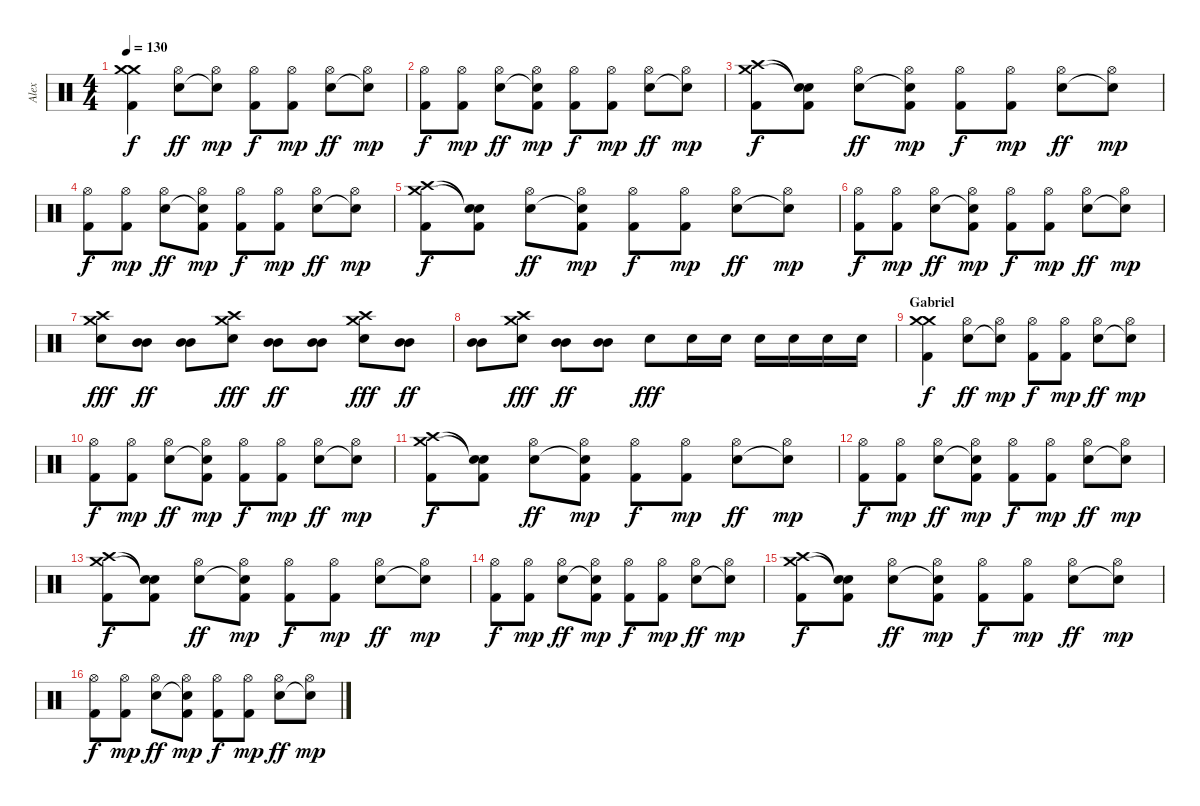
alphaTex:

\track ("Alex" "Alex") {instrument percussion}
\staff {score}
\articulation defaults
\ts (4 4)
\tempo 130
\clef neutral
\ks c
("Crash medium (hit)" "Crash medium (hit)" "Kick (hit) 2").4{dy f} ("Hi-Hat (open)" "Electric Snare (hit)").8{dy ff} ("Hi-Hat (open)" "Snare (hit)"{t}).8{dy mp} ("Hi-Hat (open)" "Kick (hit) 2").8{dy f} ("Hi-Hat (open)" "Kick (hit) 2").8{dy mp} ("Hi-Hat (open)" "Electric Snare (hit)").8{dy ff} ("Hi-Hat (open)" "Snare (hit)"{t}).8{dy mp} |
("Hi-Hat (open)" "Kick (hit) 2").8{dy f} ("Hi-Hat (open)" "Kick (hit) 2").8{dy mp} ("Hi-Hat (open)" "Electric Snare (hit)").8{dy ff} ("Hi-Hat (open)" "Snare (hit)"{t} "Kick (hit) 2").8{dy mp} ("Hi-Hat (open)" "Kick (hit) 2").8{dy f} ("Hi-Hat (open)" "Kick (hit) 2").8{dy mp} ("Hi-Hat (open)" "Electric Snare (hit)").8{dy ff} ("Hi-Hat (open)" "Snare (hit)"{t}).8{dy mp} |
("Crash medium (hit)" "Crash high (hit)" "Kick (hit) 2").8{dy f} ("Snare (hit)"{t} "Snare (hit)"{t} "Kick (hit) 2").8 ("Hi-Hat (open)" "Electric Snare (hit)").8{dy ff} ("Hi-Hat (open)" "Snare (hit)"{t} "Kick (hit) 2").8{dy mp} ("Hi-Hat (open)" "Kick (hit) 2").8{dy f} ("Hi-Hat (open)" "Kick (hit) 2").8{dy mp} ("Hi-Hat (open)" "Electric Snare (hit)").8{dy ff} ("Hi-Hat (open)" "Snare (hit)"{t}).8{dy mp} |
("Hi-Hat (open)" "Kick (hit) 2").8{dy f} ("Hi-Hat (open)" "Kick (hit) 2").8{dy mp} ("Hi-Hat (open)" "Electric Snare (hit)").8{dy ff} ("Hi-Hat (open)" "Snare (hit)"{t} "Kick (hit) 2").8{dy mp} ("Hi-Hat (open)" "Kick (hit) 2").8{dy f} ("Hi-Hat (open)" "Kick (hit) 2").8{dy mp} ("Hi-Hat (open)" "Electric Snare (hit)").8{dy ff} ("Hi-Hat (open)" "Snare (hit)"{t}).8{dy mp} |
("Crash medium (hit)" "Crash high (hit)" "Kick (hit) 2").8{dy f} ("Snare (hit)"{t} "Snare (hit)"{t} "Kick (hit) 2").8 ("Hi-Hat (open)" "Electric Snare (hit)").8{dy ff} ("Hi-Hat (open)" "Snare (hit)"{t} "Kick (hit) 2").8{dy mp} ("Hi-Hat (open)" "Kick (hit) 2").8{dy f} ("Hi-Hat (open)" "Kick (hit) 2").8{dy mp} ("Hi-Hat (open)" "Electric Snare (hit)").8{dy ff} ("Hi-Hat (open)" "Snare (hit)"{t}).8{dy mp} |
("Hi-Hat (open)" "Kick (hit) 2").8{dy f} ("Hi-Hat (open)" "Kick (hit) 2").8{dy mp} ("Hi-Hat (open)" "Electric Snare (hit)").8{dy ff} ("Hi-Hat (open)" "Snare (hit)"{t} "Kick (hit) 2").8{dy mp} ("Hi-Hat (open)" "Kick (hit) 2").8{dy f} ("Hi-Hat (open)" "Kick (hit) 2").8{dy mp} ("Hi-Hat (open)" "Electric Snare (hit)").8{dy ff} ("Hi-Hat (open)" "Snare (hit)"{t}).8{dy mp} |
("Crash high (hit)" "Crash medium (hit)" "Electric Snare (hit)").8{dy fff} ("Mid Tom (hit)" "Mid Tom (hit)").8{dy ff} ("Mid Tom (hit)" "Mid Tom (hit)").8 ("Crash high (hit)" "Crash medium (hit)" "Electric Snare (hit)").8{dy fff} ("Mid Tom (hit)" "Mid Tom (hit)").8{dy ff} ("Mid Tom (hit)" "Mid Tom (hit)").8 ("Crash high (hit)" "Crash medium (hit)" "Electric Snare (hit)").8{dy fff} ("Mid Tom (hit)" "Mid Tom (hit)").8{dy ff} |
("Mid Tom (hit)" "Mid Tom (hit)").8 ("Crash high (hit)" "Crash medium (hit)" "Electric Snare (hit)").8{dy fff} ("Mid Tom (hit)" "Mid Tom (hit)").8{dy ff} ("Mid Tom (hit)" "Mid Tom (hit)").8 "Electric Snare (hit)".8{dy fff} "Electric Snare (hit)".16 "Electric Snare (hit)".16 "Electric Snare (hit)".16 "Electric Snare (hit)".16 "Electric Snare (hit)".16 "Electric Snare (hit)".16 |
\section ("" "Gabriel")
("Crash medium (hit)" "Crash medium (hit)" "Kick (hit) 2").4{dy f} ("Hi-Hat (open)" "Electric Snare (hit)").8{dy ff} ("Hi-Hat (open)" "Snare (hit)"{t}).8{dy mp} ("Hi-Hat (open)" "Kick (hit) 2").8{dy f} ("Hi-Hat (open)" "Kick (hit) 2").8{dy mp} ("Hi-Hat (open)" "Electric Snare (hit)").8{dy ff} ("Hi-Hat (open)" "Snare (hit)"{t}).8{dy mp} |
("Hi-Hat (open)" "Kick (hit) 2").8{dy f} ("Hi-Hat (open)" "Kick (hit) 2").8{dy mp} ("Hi-Hat (open)" "Electric Snare (hit)").8{dy ff} ("Hi-Hat (open)" "Snare (hit)"{t} "Kick (hit) 2").8{dy mp} ("Hi-Hat (open)" "Kick (hit) 2").8{dy f} ("Hi-Hat (open)" "Kick (hit) 2").8{dy mp} ("Hi-Hat (open)" "Electric Snare (hit)").8{dy ff} ("Hi-Hat (open)" "Snare (hit)"{t}).8{dy mp} |
("Crash medium (hit)" "Crash high (hit)" "Kick (hit) 2").8{dy f} ("Snare (hit)"{t} "Snare (hit)"{t} "Kick (hit) 2").8 ("Hi-Hat (open)" "Electric Snare (hit)").8{dy ff} ("Hi-Hat (open)" "Snare (hit)"{t} "Kick (hit) 2").8{dy mp} ("Hi-Hat (open)" "Kick (hit) 2").8{dy f} ("Hi-Hat (open)" "Kick (hit) 2").8{dy mp} ("Hi-Hat (open)" "Electric Snare (hit)").8{dy ff} ("Hi-Hat (open)" "Snare (hit)"{t}).8{dy mp} |
("Hi-Hat (open)" "Kick (hit) 2").8{dy f} ("Hi-Hat (open)" "Kick (hit) 2").8{dy mp} ("Hi-Hat (open)" "Electric Snare (hit)").8{dy ff} ("Hi-Hat (open)" "Snare (hit)"{t} "Kick (hit) 2").8{dy mp} ("Hi-Hat (open)" "Kick (hit) 2").8{dy f} ("Hi-Hat (open)" "Kick (hit) 2").8{dy mp} ("Hi-Hat (open)" "Electric Snare (hit)").8{dy ff} ("Hi-Hat (open)" "Snare (hit)"{t}).8{dy mp} |
("Crash medium (hit)" "Crash high (hit)" "Kick (hit) 2").8{dy f} ("Snare (hit)"{t} "Snare (hit)"{t} "Kick (hit) 2").8 ("Hi-Hat (open)" "Electric Snare (hit)").8{dy ff} ("Hi-Hat (open)" "Snare (hit)"{t} "Kick (hit) 2").8{dy mp} ("Hi-Hat (open)" "Kick (hit) 2").8{dy f} ("Hi-Hat (open)" "Kick (hit) 2").8{dy mp} ("Hi-Hat (open)" "Electric Snare (hit)").8{dy ff} ("Hi-Hat (open)" "Snare (hit)"{t}).8{dy mp} |
("Hi-Hat (open)" "Kick (hit) 2").8{dy f} ("Hi-Hat (open)" "Kick (hit) 2").8{dy mp} ("Hi-Hat (open)" "Electric Snare (hit)").8{dy ff} ("Hi-Hat (open)" "Snare (hit)"{t} "Kick (hit) 2").8{dy mp} ("Hi-Hat (open)" "Kick (hit) 2").8{dy f} ("Hi-Hat (open)" "Kick (hit) 2").8{dy mp} ("Hi-Hat (open)" "Electric Snare (hit)").8{dy ff} ("Hi-Hat (open)" "Snare (hit)"{t}).8{dy mp} |
("Crash medium (hit)" "Crash high (hit)" "Kick (hit) 2").8{dy f} ("Snare (hit)"{t} "Snare (hit)"{t} "Kick (hit) 2").8 ("Hi-Hat (open)" "Electric Snare (hit)").8{dy ff} ("Hi-Hat (open)" "Snare (hit)"{t} "Kick (hit) 2").8{dy mp} ("Hi-Hat (open)" "Kick (hit) 2").8{dy f} ("Hi-Hat (open)" "Kick (hit) 2").8{dy mp} ("Hi-Hat (open)" "Electric Snare (hit)").8{dy ff} ("Hi-Hat (open)" "Snare (hit)"{t}).8{dy mp} |
("Hi-Hat (open)" "Kick (hit) 2").8{dy f} ("Hi-Hat (open)" "Kick (hit) 2").8{dy mp} ("Hi-Hat (open)" "Electric Snare (hit)").8{dy ff} ("Hi-Hat (open)" "Snare (hit)"{t} "Kick (hit) 2").8{dy mp} ("Hi-Hat (open)" "Kick (hit) 2").8{dy f} ("Hi-Hat (open)" "Kick (hit) 2").8{dy mp} ("Hi-Hat (open)" "Electric Snare (hit)").8{dy ff} ("Hi-Hat (open)" "Snare (hit)"{t}).8{dy mp}
